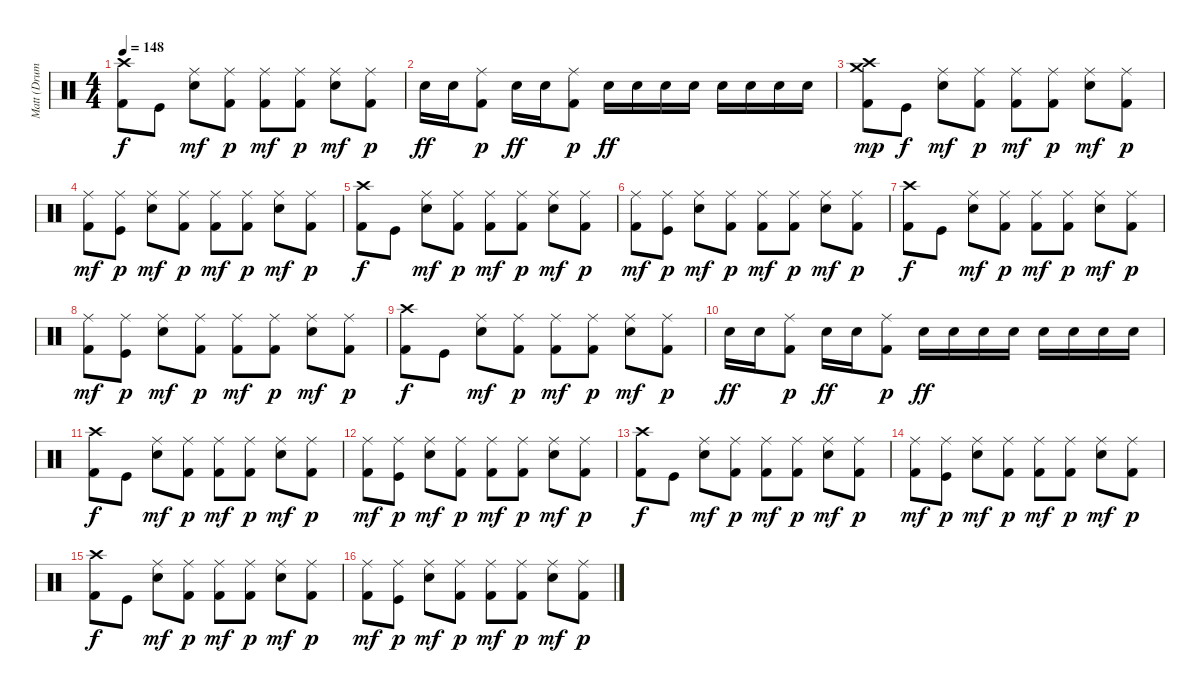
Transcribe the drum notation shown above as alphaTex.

\track ("Matt (Drums)" "Matt (Drum") {instrument percussion}
\staff {score}
\articulation defaults
\ts (4 4)
\tempo 148
\clef neutral
\ks c
("Kick (hit) 2" "Crash high (hit)").8{dy f} "Kick (hit)".8 ("Electric Snare (hit)" "Ride (middle)").8{dy mf} ("Kick (hit) 2" "Ride (middle)").8{dy p} ("Kick (hit) 2" "Ride (middle)").8{dy mf} ("Kick (hit) 2" "Ride (middle)").8{dy p} ("Electric Snare (hit)" "Ride (middle)").8{dy mf} ("Kick (hit) 2" "Ride (middle)").8{dy p} |
"Electric Snare (hit)".16{dy ff} "Electric Snare (hit)".16 ("Kick (hit) 2" "Ride (middle)").8{dy p} "Electric Snare (hit)".16{dy ff} "Electric Snare (hit)".16 ("Kick (hit) 2" "Ride (middle)").8{dy p} "Electric Snare (hit)".16{dy ff} "Electric Snare (hit)".16 "Electric Snare (hit)".16 "Electric Snare (hit)".16 "Electric Snare (hit)".16 "Electric Snare (hit)".16 "Electric Snare (hit)".16 "Electric Snare (hit)".16 |
("Kick (hit) 2" "Crash high (hit)" "Crash medium (hit)").8{dy mp} "Kick (hit)".8{dy f} ("Electric Snare (hit)" "Ride (middle)").8{dy mf} ("Kick (hit) 2" "Ride (middle)").8{dy p} ("Kick (hit) 2" "Ride (middle)").8{dy mf} ("Kick (hit) 2" "Ride (middle)").8{dy p} ("Electric Snare (hit)" "Ride (middle)").8{dy mf} ("Kick (hit) 2" "Ride (middle)").8{dy p} |
("Kick (hit) 2" "Ride (middle)").8{dy mf} ("Kick (hit)" "Ride (middle)").8{dy p} ("Electric Snare (hit)" "Ride (middle)").8{dy mf} ("Kick (hit) 2" "Ride (middle)").8{dy p} ("Kick (hit) 2" "Ride (middle)").8{dy mf} ("Kick (hit) 2" "Ride (middle)").8{dy p} ("Electric Snare (hit)" "Ride (middle)").8{dy mf} ("Kick (hit) 2" "Ride (middle)").8{dy p} |
("Kick (hit) 2" "Crash high (hit)").8{dy f} "Kick (hit)".8 ("Electric Snare (hit)" "Ride (middle)").8{dy mf} ("Kick (hit) 2" "Ride (middle)").8{dy p} ("Kick (hit) 2" "Ride (middle)").8{dy mf} ("Kick (hit) 2" "Ride (middle)").8{dy p} ("Electric Snare (hit)" "Ride (middle)").8{dy mf} ("Kick (hit) 2" "Ride (middle)").8{dy p} |
("Kick (hit) 2" "Ride (middle)").8{dy mf} ("Kick (hit)" "Ride (middle)").8{dy p} ("Electric Snare (hit)" "Ride (middle)").8{dy mf} ("Kick (hit) 2" "Ride (middle)").8{dy p} ("Kick (hit) 2" "Ride (middle)").8{dy mf} ("Kick (hit) 2" "Ride (middle)").8{dy p} ("Electric Snare (hit)" "Ride (middle)").8{dy mf} ("Kick (hit) 2" "Ride (middle)").8{dy p} |
("Kick (hit) 2" "Crash high (hit)").8{dy f} "Kick (hit)".8 ("Electric Snare (hit)" "Ride (middle)").8{dy mf} ("Kick (hit) 2" "Ride (middle)").8{dy p} ("Kick (hit) 2" "Ride (middle)").8{dy mf} ("Kick (hit) 2" "Ride (middle)").8{dy p} ("Electric Snare (hit)" "Ride (middle)").8{dy mf} ("Kick (hit) 2" "Ride (middle)").8{dy p} |
("Kick (hit) 2" "Ride (middle)").8{dy mf} ("Kick (hit)" "Ride (middle)").8{dy p} ("Electric Snare (hit)" "Ride (middle)").8{dy mf} ("Kick (hit) 2" "Ride (middle)").8{dy p} ("Kick (hit) 2" "Ride (middle)").8{dy mf} ("Kick (hit) 2" "Ride (middle)").8{dy p} ("Electric Snare (hit)" "Ride (middle)").8{dy mf} ("Kick (hit) 2" "Ride (middle)").8{dy p} |
("Kick (hit) 2" "Crash high (hit)").8{dy f} "Kick (hit)".8 ("Electric Snare (hit)" "Ride (middle)").8{dy mf} ("Kick (hit) 2" "Ride (middle)").8{dy p} ("Kick (hit) 2" "Ride (middle)").8{dy mf} ("Kick (hit) 2" "Ride (middle)").8{dy p} ("Electric Snare (hit)" "Ride (middle)").8{dy mf} ("Kick (hit) 2" "Ride (middle)").8{dy p} |
"Electric Snare (hit)".16{dy ff} "Electric Snare (hit)".16 ("Kick (hit) 2" "Ride (middle)").8{dy p} "Electric Snare (hit)".16{dy ff} "Electric Snare (hit)".16 ("Kick (hit) 2" "Ride (middle)").8{dy p} "Electric Snare (hit)".16{dy ff} "Electric Snare (hit)".16 "Electric Snare (hit)".16 "Electric Snare (hit)".16 "Electric Snare (hit)".16 "Electric Snare (hit)".16 "Electric Snare (hit)".16 "Electric Snare (hit)".16 |
("Kick (hit) 2" "Crash high (hit)").8{dy f} "Kick (hit)".8 ("Electric Snare (hit)" "Ride (middle)").8{dy mf} ("Kick (hit) 2" "Ride (middle)").8{dy p} ("Kick (hit) 2" "Ride (middle)").8{dy mf} ("Kick (hit) 2" "Ride (middle)").8{dy p} ("Electric Snare (hit)" "Ride (middle)").8{dy mf} ("Kick (hit) 2" "Ride (middle)").8{dy p} |
("Kick (hit) 2" "Ride (middle)").8{dy mf} ("Kick (hit)" "Ride (middle)").8{dy p} ("Electric Snare (hit)" "Ride (middle)").8{dy mf} ("Kick (hit) 2" "Ride (middle)").8{dy p} ("Kick (hit) 2" "Ride (middle)").8{dy mf} ("Kick (hit) 2" "Ride (middle)").8{dy p} ("Electric Snare (hit)" "Ride (middle)").8{dy mf} ("Kick (hit) 2" "Ride (middle)").8{dy p} |
("Kick (hit) 2" "Crash high (hit)").8{dy f} "Kick (hit)".8 ("Electric Snare (hit)" "Ride (middle)").8{dy mf} ("Kick (hit) 2" "Ride (middle)").8{dy p} ("Kick (hit) 2" "Ride (middle)").8{dy mf} ("Kick (hit) 2" "Ride (middle)").8{dy p} ("Electric Snare (hit)" "Ride (middle)").8{dy mf} ("Kick (hit) 2" "Ride (middle)").8{dy p} |
("Kick (hit) 2" "Ride (middle)").8{dy mf} ("Kick (hit)" "Ride (middle)").8{dy p} ("Electric Snare (hit)" "Ride (middle)").8{dy mf} ("Kick (hit) 2" "Ride (middle)").8{dy p} ("Kick (hit) 2" "Ride (middle)").8{dy mf} ("Kick (hit) 2" "Ride (middle)").8{dy p} ("Electric Snare (hit)" "Ride (middle)").8{dy mf} ("Kick (hit) 2" "Ride (middle)").8{dy p} |
("Kick (hit) 2" "Crash high (hit)").8{dy f} "Kick (hit)".8 ("Electric Snare (hit)" "Ride (middle)").8{dy mf} ("Kick (hit) 2" "Ride (middle)").8{dy p} ("Kick (hit) 2" "Ride (middle)").8{dy mf} ("Kick (hit) 2" "Ride (middle)").8{dy p} ("Electric Snare (hit)" "Ride (middle)").8{dy mf} ("Kick (hit) 2" "Ride (middle)").8{dy p} |
("Kick (hit) 2" "Ride (middle)").8{dy mf} ("Kick (hit)" "Ride (middle)").8{dy p} ("Electric Snare (hit)" "Ride (middle)").8{dy mf} ("Kick (hit) 2" "Ride (middle)").8{dy p} ("Kick (hit) 2" "Ride (middle)").8{dy mf} ("Kick (hit) 2" "Ride (middle)").8{dy p} ("Electric Snare (hit)" "Ride (middle)").8{dy mf} ("Kick (hit) 2" "Ride (middle)").8{dy p}
